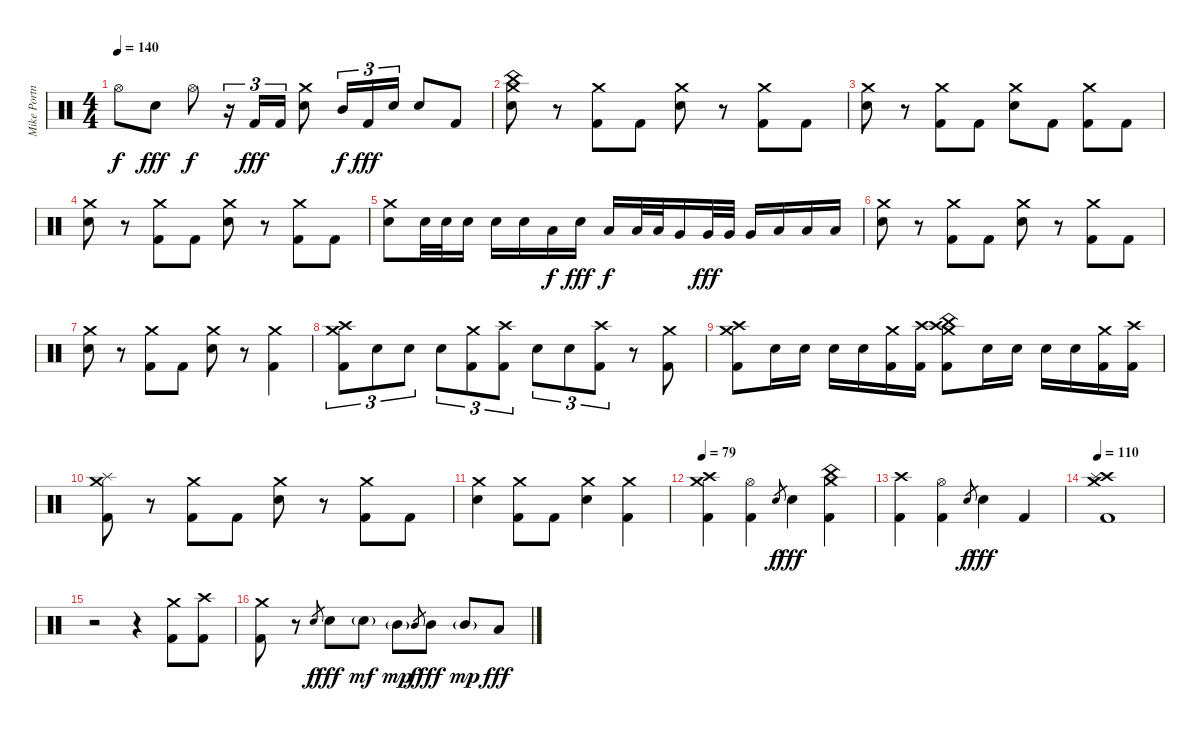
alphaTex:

\track ("Mike Portnoy" "Mike Portn") {instrument percussion}
\staff {score}
\articulation defaults
\ts (4 4)
\tempo 140
\clef neutral
\ks c "Hi-Hat (open)".8{dy f} "Electric Snare (hit)".8{dy fff} "Hi-Hat (open)".8{dy f}
r.16{tu (3 2)} "Kick (hit) 2".16{tu (3 2) dy fff} "Kick (hit) 2".16{tu (3 2)} ("Crash medium (hit)" "Electric Snare (hit)").8 "Mid Tom (hit)".16{tu (3 2) dy f} "Kick (hit) 2".16{tu (3 2) dy fff} "Electric Snare (hit)".16{tu (3 2)} "Electric Snare (hit)".8 "Kick (hit) 2".8 |
("China (hit)" "Crash medium (hit)" "Electric Snare (hit)").8 r.8 ("Crash medium (hit)" "Kick (hit) 2").8 "Kick (hit) 2".8 ("Crash medium (hit)" "Electric Snare (hit)").8 r.8 ("Crash medium (hit)" "Kick (hit) 2").8 "Kick (hit) 2".8 |
("Crash medium (hit)" "Electric Snare (hit)").8 r.8 ("Crash medium (hit)" "Kick (hit) 2").8 "Kick (hit) 2".8 ("Crash medium (hit)" "Electric Snare (hit)").8 "Kick (hit) 2".8 ("Crash medium (hit)" "Kick (hit) 2").8 "Kick (hit) 2".8 |
("Crash medium (hit)" "Electric Snare (hit)").8 r.8 ("Crash medium (hit)" "Kick (hit) 2").8 "Kick (hit) 2".8 ("Crash medium (hit)" "Electric Snare (hit)").8 r.8 ("Crash medium (hit)" "Kick (hit) 2").8 "Kick (hit) 2".8 |
("Crash medium (hit)" "Electric Snare (hit)").8 "Electric Snare (hit)".32 "Electric Snare (hit)".32 "Electric Snare (hit)".16 "Electric Snare (hit)".16 "Electric Snare (hit)".16 "Low Tom (hit)".16{dy f} "Electric Snare (hit)".16{dy fff} "Low Tom (hit)".16{dy f} "Low Tom (hit)".32 "Low Tom (hit)".32 "Very Low Tom (hit)".16 "Very Low Tom (hit)".32{dy fff} "Very Low Tom (hit)".32 "Very Low Tom (hit)".16 "Low Floor Tom (hit)".16 "Low Floor Tom (hit)".16 "Low Floor Tom (hit)".16 |
("Crash medium (hit)" "Electric Snare (hit)").8 r.8 ("Crash medium (hit)" "Kick (hit) 2").8 "Kick (hit) 2".8 ("Crash medium (hit)" "Electric Snare (hit)").8 r.8 ("Crash medium (hit)" "Kick (hit) 2").8 "Kick (hit) 2".8 |
("Crash medium (hit)" "Electric Snare (hit)").8 r.8 ("Crash medium (hit)" "Kick (hit) 2").8 "Kick (hit) 2".8 ("Crash medium (hit)" "Electric Snare (hit)").8 r.8 ("Crash medium (hit)" "Kick (hit) 2").4 |
("Crash medium (hit)" "Crash high (hit)" "Kick (hit) 2").8{tu (3 2)} "Electric Snare (hit)".8{tu (3 2)} "Electric Snare (hit)".8{tu (3 2)} "Electric Snare (hit)".8{tu (3 2)} ("Crash medium (hit)" "Kick (hit) 2").8{tu (3 2)} ("Crash high (hit)" "Kick (hit) 2").8{tu (3 2)} "Electric Snare (hit)".8{tu (3 2)} "Electric Snare (hit)".8{tu (3 2)} ("Crash high (hit)" "Kick (hit) 2").8{tu (3 2)} r.8 ("Crash medium (hit)" "Kick (hit) 2").8 |
("Crash medium (hit)" "Crash high (hit)" "Kick (hit) 2").8 "Electric Snare (hit)".16 "Electric Snare (hit)".16 "Electric Snare (hit)".16 "Electric Snare (hit)".16 ("Crash medium (hit)" "Kick (hit) 2").16 ("Crash high (hit)" "Kick (hit) 2").16 ("Crash medium (hit)" "China (hit)" "Crash high (hit)" "Kick (hit) 2").8 "Electric Snare (hit)".16 "Electric Snare (hit)".16 "Electric Snare (hit)".16 "Electric Snare (hit)".16 ("Crash medium (hit)" "Kick (hit) 2").16 ("Crash high (hit)" "Kick (hit) 2").16 |
("Splash (hit)" "Crash medium (hit)" "Kick (hit) 2").8 r.8 ("Crash medium (hit)" "Kick (hit) 2").8 "Kick (hit) 2".8 ("Crash medium (hit)" "Electric Snare (hit)").8 r.8 ("Crash medium (hit)" "Kick (hit) 2").8 "Kick (hit) 2".8 |
("Crash medium (hit)" "Electric Snare (hit)").4 ("Crash medium (hit)" "Kick (hit) 2").8 "Kick (hit) 2".8 ("Crash medium (hit)" "Electric Snare (hit)").4 ("Crash medium (hit)" "Kick (hit) 2").4 |
\tempo 79
("Crash medium (hit)" "Crash high (hit)" "Kick (hit) 2").4 ("Hi-Hat (open)" "Kick (hit) 2").4 "Electric Snare (hit)".8{gr dy f} "Electric Snare (hit)".4{dy fff} ("Crash medium (hit)" "China (hit)" "Kick (hit) 2").4 |
("Crash high (hit)" "Kick (hit) 2").4 ("Hi-Hat (open)" "Kick (hit) 2").4 "Electric Snare (hit)".8{gr dy f} "Electric Snare (hit)".4{dy fff} "Kick (hit) 2".4 |
\tempo 110
("Crash high (hit)" "Crash medium (hit)" "Splash (hit)" "Kick (hit) 2").1 |
r.2 r.4 ("Crash medium (hit)" "Kick (hit) 2").8 ("Crash high (hit)" "Kick (hit) 2").8 |
("Crash medium (hit)" "Kick (hit) 2").8 r.8 "Electric Snare (hit)".8{gr dy f} "Electric Snare (hit)".8{dy fff} "Electric Snare (hit)"{g}.8{dy mf} "Mid Tom (hit)"{g}.8{dy mp} "Mid Tom (hit)".8{gr dy f} "Mid Tom (hit)".8{dy fff} "Mid Tom (hit)"{g}.8{dy mp} "Low Tom (hit)".8{dy fff}
